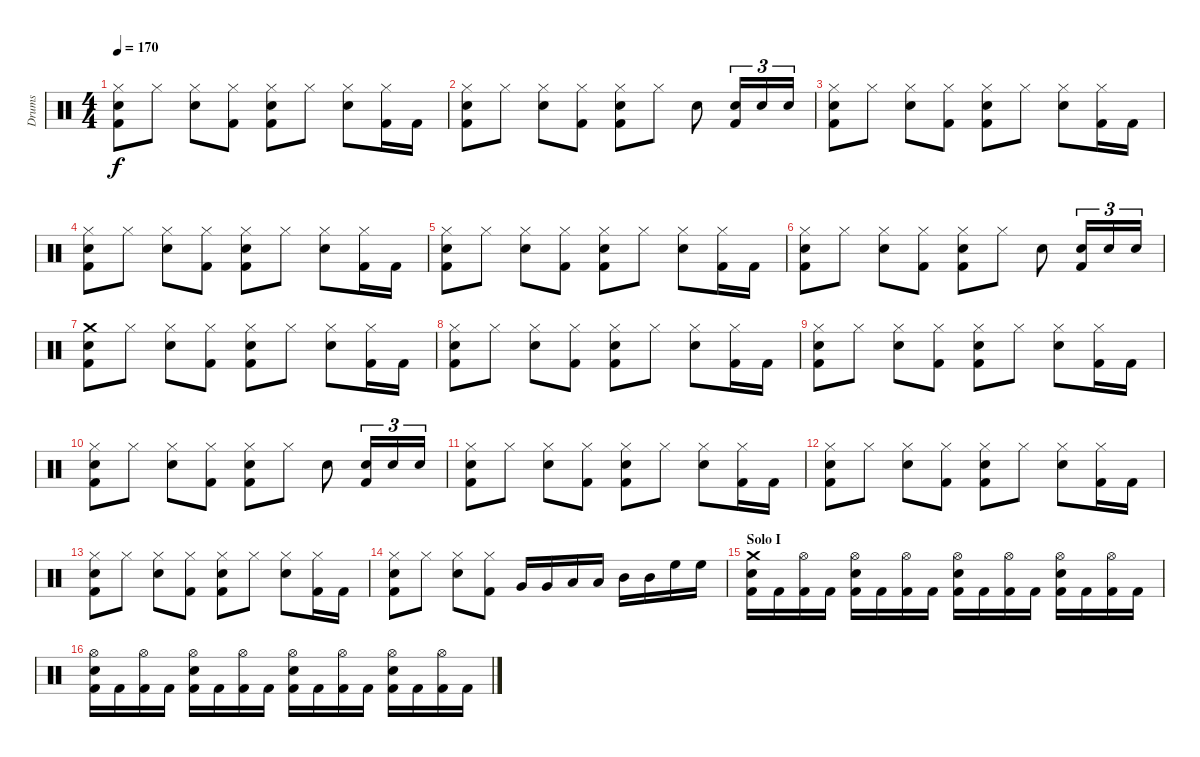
\track ("Drums" "Drums") {instrument percussion}
\staff {score}
\articulation defaults
\ts (4 4)
\tempo 170
\clef neutral
\ks c
("Kick (hit) 2" "Snare (hit) 2" "Hi-Hat (closed)").8{dy f} "Hi-Hat (closed)".8 ("Snare (hit) 2" "Hi-Hat (closed)").8 ("Kick (hit) 2" "Hi-Hat (closed)").8 ("Kick (hit) 2" "Snare (hit) 2" "Hi-Hat (closed)").8 "Hi-Hat (closed)".8 ("Snare (hit) 2" "Hi-Hat (closed)").8 ("Kick (hit) 2" "Hi-Hat (closed)").16 "Kick (hit) 2".16 |
("Kick (hit) 2" "Snare (hit) 2" "Hi-Hat (closed)").8 "Hi-Hat (closed)".8 ("Snare (hit) 2" "Hi-Hat (closed)").8 ("Kick (hit) 2" "Hi-Hat (closed)").8 ("Kick (hit) 2" "Snare (hit) 2" "Hi-Hat (closed)").8 "Hi-Hat (closed)".8 "Snare (hit) 2".8 ("Kick (hit) 2" "Snare (hit) 2").16{tu (3 2)} "Snare (hit) 2".16{tu (3 2)} "Snare (hit) 2".16{tu (3 2)} |
("Kick (hit) 2" "Snare (hit) 2" "Hi-Hat (closed)").8 "Hi-Hat (closed)".8 ("Snare (hit) 2" "Hi-Hat (closed)").8 ("Kick (hit) 2" "Hi-Hat (closed)").8 ("Kick (hit) 2" "Snare (hit) 2" "Hi-Hat (closed)").8 "Hi-Hat (closed)".8 ("Snare (hit) 2" "Hi-Hat (closed)").8 ("Kick (hit) 2" "Hi-Hat (closed)").16 "Kick (hit) 2".16 |
("Kick (hit) 2" "Snare (hit) 2" "Hi-Hat (closed)").8 "Hi-Hat (closed)".8 ("Snare (hit) 2" "Hi-Hat (closed)").8 ("Kick (hit) 2" "Hi-Hat (closed)").8 ("Kick (hit) 2" "Snare (hit) 2" "Hi-Hat (closed)").8 "Hi-Hat (closed)".8 ("Snare (hit) 2" "Hi-Hat (closed)").8 ("Kick (hit) 2" "Hi-Hat (closed)").16 "Kick (hit) 2".16 |
("Kick (hit) 2" "Snare (hit) 2" "Hi-Hat (closed)").8 "Hi-Hat (closed)".8 ("Snare (hit) 2" "Hi-Hat (closed)").8 ("Kick (hit) 2" "Hi-Hat (closed)").8 ("Kick (hit) 2" "Snare (hit) 2" "Hi-Hat (closed)").8 "Hi-Hat (closed)".8 ("Snare (hit) 2" "Hi-Hat (closed)").8 ("Kick (hit) 2" "Hi-Hat (closed)").16 "Kick (hit) 2".16 |
("Kick (hit) 2" "Snare (hit) 2" "Hi-Hat (closed)").8 "Hi-Hat (closed)".8 ("Snare (hit) 2" "Hi-Hat (closed)").8 ("Kick (hit) 2" "Hi-Hat (closed)").8 ("Kick (hit) 2" "Snare (hit) 2" "Hi-Hat (closed)").8 "Hi-Hat (closed)".8 "Snare (hit) 2".8 ("Kick (hit) 2" "Snare (hit) 2").16{tu (3 2)} "Snare (hit) 2".16{tu (3 2)} "Snare (hit) 2".16{tu (3 2)} |
("Kick (hit) 2" "Snare (hit) 2" "Crash medium (hit)").8 "Hi-Hat (closed)".8 ("Snare (hit) 2" "Hi-Hat (closed)").8 ("Kick (hit) 2" "Hi-Hat (closed)").8 ("Kick (hit) 2" "Snare (hit) 2" "Hi-Hat (closed)").8 "Hi-Hat (closed)".8 ("Snare (hit) 2" "Hi-Hat (closed)").8 ("Kick (hit) 2" "Hi-Hat (closed)").16 "Kick (hit) 2".16 |
("Kick (hit) 2" "Snare (hit) 2" "Hi-Hat (closed)").8 "Hi-Hat (closed)".8 ("Snare (hit) 2" "Hi-Hat (closed)").8 ("Kick (hit) 2" "Hi-Hat (closed)").8 ("Kick (hit) 2" "Snare (hit) 2" "Hi-Hat (closed)").8 "Hi-Hat (closed)".8 ("Snare (hit) 2" "Hi-Hat (closed)").8 ("Kick (hit) 2" "Hi-Hat (closed)").16 "Kick (hit) 2".16 |
("Kick (hit) 2" "Snare (hit) 2" "Hi-Hat (closed)").8 "Hi-Hat (closed)".8 ("Snare (hit) 2" "Hi-Hat (closed)").8 ("Kick (hit) 2" "Hi-Hat (closed)").8 ("Kick (hit) 2" "Snare (hit) 2" "Hi-Hat (closed)").8 "Hi-Hat (closed)".8 ("Snare (hit) 2" "Hi-Hat (closed)").8 ("Kick (hit) 2" "Hi-Hat (closed)").16 "Kick (hit) 2".16 |
("Kick (hit) 2" "Snare (hit) 2" "Hi-Hat (closed)").8 "Hi-Hat (closed)".8 ("Snare (hit) 2" "Hi-Hat (closed)").8 ("Kick (hit) 2" "Hi-Hat (closed)").8 ("Kick (hit) 2" "Snare (hit) 2" "Hi-Hat (closed)").8 "Hi-Hat (closed)".8 "Snare (hit) 2".8 ("Kick (hit) 2" "Snare (hit) 2").16{tu (3 2)} "Snare (hit) 2".16{tu (3 2)} "Snare (hit) 2".16{tu (3 2)} |
("Kick (hit) 2" "Snare (hit) 2" "Hi-Hat (closed)").8 "Hi-Hat (closed)".8 ("Snare (hit) 2" "Hi-Hat (closed)").8 ("Kick (hit) 2" "Hi-Hat (closed)").8 ("Kick (hit) 2" "Snare (hit) 2" "Hi-Hat (closed)").8 "Hi-Hat (closed)".8 ("Snare (hit) 2" "Hi-Hat (closed)").8 ("Kick (hit) 2" "Hi-Hat (closed)").16 "Kick (hit) 2".16 |
("Kick (hit) 2" "Snare (hit) 2" "Hi-Hat (closed)").8 "Hi-Hat (closed)".8 ("Snare (hit) 2" "Hi-Hat (closed)").8 ("Kick (hit) 2" "Hi-Hat (closed)").8 ("Kick (hit) 2" "Snare (hit) 2" "Hi-Hat (closed)").8 "Hi-Hat (closed)".8 ("Snare (hit) 2" "Hi-Hat (closed)").8 ("Kick (hit) 2" "Hi-Hat (closed)").16 "Kick (hit) 2".16 |
("Kick (hit) 2" "Snare (hit) 2" "Hi-Hat (closed)").8 "Hi-Hat (closed)".8 ("Snare (hit) 2" "Hi-Hat (closed)").8 ("Kick (hit) 2" "Hi-Hat (closed)").8 ("Kick (hit) 2" "Snare (hit) 2" "Hi-Hat (closed)").8 "Hi-Hat (closed)".8 ("Snare (hit) 2" "Hi-Hat (closed)").8 ("Kick (hit) 2" "Hi-Hat (closed)").16 "Kick (hit) 2".16 |
("Kick (hit) 2" "Snare (hit) 2" "Hi-Hat (closed)").8 "Hi-Hat (closed)".8 ("Snare (hit) 2" "Hi-Hat (closed)").8 ("Kick (hit) 2" "Hi-Hat (closed)").8 "Very Low Tom (hit)".16 "Very Low Tom (hit)".16 "Low Tom (hit)".16 "Low Tom (hit)".16 "Mid Tom (hit)".16 "Mid Tom (hit)".16 "High Floor Tom (hit)".16 "High Floor Tom (hit)".16 |
\section ("" "Solo I")
("Kick (hit) 2" "Snare (hit) 2" "Crash medium (hit)").16 "Kick (hit) 2".16 ("Kick (hit) 2" "Hi-Hat (open)").16 "Kick (hit) 2".16 ("Kick (hit) 2" "Snare (hit) 2" "Hi-Hat (open)").16 "Kick (hit) 2".16 ("Kick (hit) 2" "Hi-Hat (open)").16 "Kick (hit) 2".16 ("Kick (hit) 2" "Snare (hit) 2" "Hi-Hat (open)").16 "Kick (hit) 2".16 ("Kick (hit) 2" "Hi-Hat (open)").16 "Kick (hit) 2".16 ("Kick (hit) 2" "Snare (hit) 2" "Hi-Hat (open)").16 "Kick (hit) 2".16 ("Kick (hit) 2" "Hi-Hat (open)").16 "Kick (hit) 2".16 |
("Kick (hit) 2" "Snare (hit) 2" "Hi-Hat (open)").16 "Kick (hit) 2".16 ("Kick (hit) 2" "Hi-Hat (open)").16 "Kick (hit) 2".16 ("Kick (hit) 2" "Snare (hit) 2" "Hi-Hat (open)").16 "Kick (hit) 2".16 ("Kick (hit) 2" "Hi-Hat (open)").16 "Kick (hit) 2".16 ("Kick (hit) 2" "Snare (hit) 2" "Hi-Hat (open)").16 "Kick (hit) 2".16 ("Kick (hit) 2" "Hi-Hat (open)").16 "Kick (hit) 2".16 ("Kick (hit) 2" "Snare (hit) 2" "Hi-Hat (open)").16 "Kick (hit) 2".16 ("Kick (hit) 2" "Hi-Hat (open)").16 "Kick (hit) 2".16
